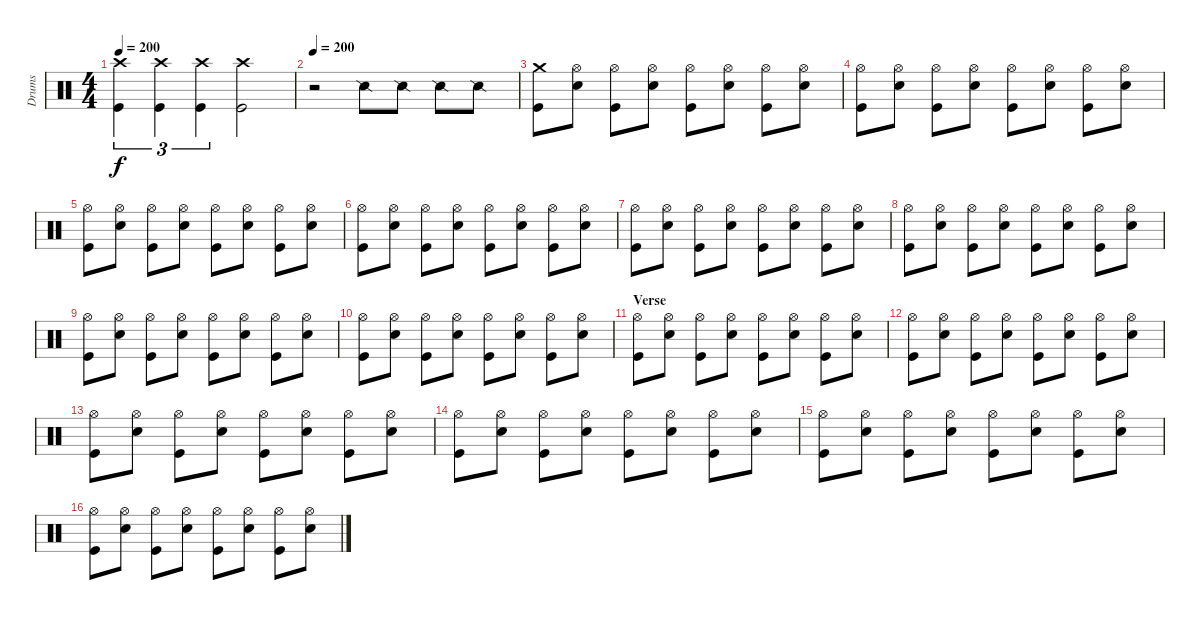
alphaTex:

\track ("Drums" "Drums") {instrument percussion}
\staff {score}
\articulation defaults
\ts (4 4)
\tempo 200
\clef neutral
\ks c
("Crash high (hit)" "Kick (hit)").4{tu (3 2) dy f} ("Crash high (hit)" "Kick (hit)").4{tu (3 2)} ("Crash high (hit)" "Kick (hit)").4{tu (3 2)} ("Crash high (hit)" "Kick (hit)").2 |
\tempo 200
r.2 "Snare (side stick) 2".8 "Snare (side stick) 2".8 "Snare (side stick) 2".8 "Snare (side stick) 2".8 |
("Crash medium (hit)" "Kick (hit)").8 ("Hi-Hat (open)" "Snare (hit) 2").8 ("Hi-Hat (open)" "Kick (hit)").8 ("Hi-Hat (open)" "Snare (hit) 2").8 ("Hi-Hat (open)" "Kick (hit)").8 ("Hi-Hat (open)" "Snare (hit) 2").8 ("Hi-Hat (open)" "Kick (hit)").8 ("Hi-Hat (open)" "Snare (hit) 2").8 |
("Hi-Hat (open)" "Kick (hit)").8 ("Hi-Hat (open)" "Snare (hit) 2").8 ("Hi-Hat (open)" "Kick (hit)").8 ("Hi-Hat (open)" "Snare (hit) 2").8 ("Hi-Hat (open)" "Kick (hit)").8 ("Hi-Hat (open)" "Snare (hit) 2").8 ("Hi-Hat (open)" "Kick (hit)").8 ("Hi-Hat (open)" "Snare (hit) 2").8 |
("Hi-Hat (open)" "Kick (hit)").8 ("Hi-Hat (open)" "Snare (hit) 2").8 ("Hi-Hat (open)" "Kick (hit)").8 ("Hi-Hat (open)" "Snare (hit) 2").8 ("Hi-Hat (open)" "Kick (hit)").8 ("Hi-Hat (open)" "Snare (hit) 2").8 ("Hi-Hat (open)" "Kick (hit)").8 ("Hi-Hat (open)" "Snare (hit) 2").8 |
("Hi-Hat (open)" "Kick (hit)").8 ("Hi-Hat (open)" "Snare (hit) 2").8 ("Hi-Hat (open)" "Kick (hit)").8 ("Hi-Hat (open)" "Snare (hit) 2").8 ("Hi-Hat (open)" "Kick (hit)").8 ("Hi-Hat (open)" "Snare (hit) 2").8 ("Hi-Hat (open)" "Kick (hit)").8 ("Hi-Hat (open)" "Snare (hit) 2").8 |
("Hi-Hat (open)" "Kick (hit)").8 ("Hi-Hat (open)" "Snare (hit) 2").8 ("Hi-Hat (open)" "Kick (hit)").8 ("Hi-Hat (open)" "Snare (hit) 2").8 ("Hi-Hat (open)" "Kick (hit)").8 ("Hi-Hat (open)" "Snare (hit) 2").8 ("Hi-Hat (open)" "Kick (hit)").8 ("Hi-Hat (open)" "Snare (hit) 2").8 |
("Hi-Hat (open)" "Kick (hit)").8 ("Hi-Hat (open)" "Snare (hit) 2").8 ("Hi-Hat (open)" "Kick (hit)").8 ("Hi-Hat (open)" "Snare (hit) 2").8 ("Hi-Hat (open)" "Kick (hit)").8 ("Hi-Hat (open)" "Snare (hit) 2").8 ("Hi-Hat (open)" "Kick (hit)").8 ("Hi-Hat (open)" "Snare (hit) 2").8 |
("Hi-Hat (open)" "Kick (hit)").8 ("Hi-Hat (open)" "Snare (hit) 2").8 ("Hi-Hat (open)" "Kick (hit)").8 ("Hi-Hat (open)" "Snare (hit) 2").8 ("Hi-Hat (open)" "Kick (hit)").8 ("Hi-Hat (open)" "Snare (hit) 2").8 ("Hi-Hat (open)" "Kick (hit)").8 ("Hi-Hat (open)" "Snare (hit) 2").8 |
("Hi-Hat (open)" "Kick (hit)").8 ("Hi-Hat (open)" "Snare (hit) 2").8 ("Hi-Hat (open)" "Kick (hit)").8 ("Hi-Hat (open)" "Snare (hit) 2").8 ("Hi-Hat (open)" "Kick (hit)").8 ("Hi-Hat (open)" "Snare (hit) 2").8 ("Hi-Hat (open)" "Kick (hit)").8 ("Hi-Hat (open)" "Snare (hit) 2").8 |
\section ("" "Verse")
("Hi-Hat (open)" "Kick (hit)").8 ("Hi-Hat (open)" "Snare (hit) 2").8 ("Hi-Hat (open)" "Kick (hit)").8 ("Hi-Hat (open)" "Snare (hit) 2").8 ("Hi-Hat (open)" "Kick (hit)").8 ("Hi-Hat (open)" "Snare (hit) 2").8 ("Hi-Hat (open)" "Kick (hit)").8 ("Hi-Hat (open)" "Snare (hit) 2").8 |
("Hi-Hat (open)" "Kick (hit)").8 ("Hi-Hat (open)" "Snare (hit) 2").8 ("Hi-Hat (open)" "Kick (hit)").8 ("Hi-Hat (open)" "Snare (hit) 2").8 ("Hi-Hat (open)" "Kick (hit)").8 ("Hi-Hat (open)" "Snare (hit) 2").8 ("Hi-Hat (open)" "Kick (hit)").8 ("Hi-Hat (open)" "Snare (hit) 2").8 |
("Hi-Hat (open)" "Kick (hit)").8 ("Hi-Hat (open)" "Snare (hit) 2").8 ("Hi-Hat (open)" "Kick (hit)").8 ("Hi-Hat (open)" "Snare (hit) 2").8 ("Hi-Hat (open)" "Kick (hit)").8 ("Hi-Hat (open)" "Snare (hit) 2").8 ("Hi-Hat (open)" "Kick (hit)").8 ("Hi-Hat (open)" "Snare (hit) 2").8 |
("Hi-Hat (open)" "Kick (hit)").8 ("Hi-Hat (open)" "Snare (hit) 2").8 ("Hi-Hat (open)" "Kick (hit)").8 ("Hi-Hat (open)" "Snare (hit) 2").8 ("Hi-Hat (open)" "Kick (hit)").8 ("Hi-Hat (open)" "Snare (hit) 2").8 ("Hi-Hat (open)" "Kick (hit)").8 ("Hi-Hat (open)" "Snare (hit) 2").8 |
("Hi-Hat (open)" "Kick (hit)").8 ("Hi-Hat (open)" "Snare (hit) 2").8 ("Hi-Hat (open)" "Kick (hit)").8 ("Hi-Hat (open)" "Snare (hit) 2").8 ("Hi-Hat (open)" "Kick (hit)").8 ("Hi-Hat (open)" "Snare (hit) 2").8 ("Hi-Hat (open)" "Kick (hit)").8 ("Hi-Hat (open)" "Snare (hit) 2").8 |
("Hi-Hat (open)" "Kick (hit)").8 ("Hi-Hat (open)" "Snare (hit) 2").8 ("Hi-Hat (open)" "Kick (hit)").8 ("Hi-Hat (open)" "Snare (hit) 2").8 ("Hi-Hat (open)" "Kick (hit)").8 ("Hi-Hat (open)" "Snare (hit) 2").8 ("Hi-Hat (open)" "Kick (hit)").8 ("Hi-Hat (open)" "Snare (hit) 2").8
